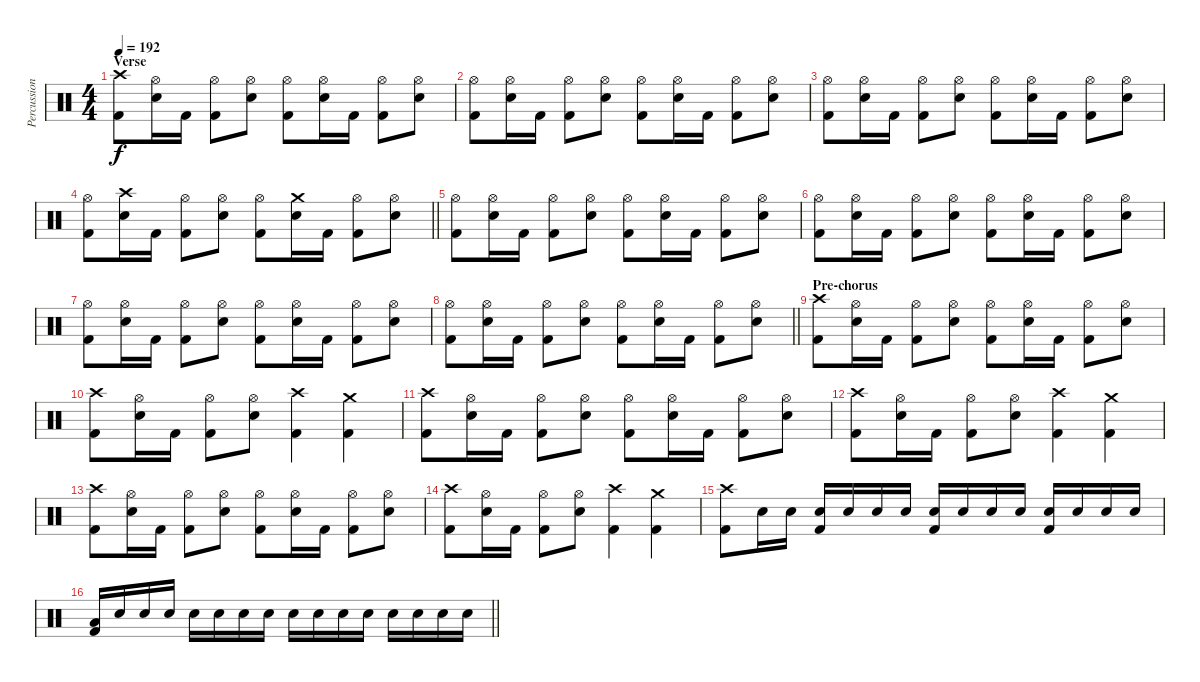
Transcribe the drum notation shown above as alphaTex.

\track ("Percussion" "Percussion") {instrument percussion}
\staff {score}
\articulation defaults
\ts (4 4)
\section ("" "Verse ")
\tempo 192
\clef neutral
\ks c
("Crash high (hit)" "Kick (hit) 2").8{dy f} ("Hi-Hat (open)" "Electric Snare (hit)").16 "Kick (hit) 2".16 ("Hi-Hat (open)" "Kick (hit) 2").8 ("Hi-Hat (open)" "Electric Snare (hit)").8 ("Hi-Hat (open)" "Kick (hit) 2").8 ("Hi-Hat (open)" "Electric Snare (hit)").16 "Kick (hit) 2".16 ("Hi-Hat (open)" "Kick (hit) 2").8 ("Hi-Hat (open)" "Electric Snare (hit)").8 |
("Hi-Hat (open)" "Kick (hit) 2").8 ("Hi-Hat (open)" "Electric Snare (hit)").16 "Kick (hit) 2".16 ("Hi-Hat (open)" "Kick (hit) 2").8 ("Hi-Hat (open)" "Electric Snare (hit)").8 ("Hi-Hat (open)" "Kick (hit) 2").8 ("Hi-Hat (open)" "Electric Snare (hit)").16 "Kick (hit) 2".16 ("Hi-Hat (open)" "Kick (hit) 2").8 ("Hi-Hat (open)" "Electric Snare (hit)").8 |
("Hi-Hat (open)" "Kick (hit) 2").8 ("Hi-Hat (open)" "Electric Snare (hit)").16 "Kick (hit) 2".16 ("Hi-Hat (open)" "Kick (hit) 2").8 ("Hi-Hat (open)" "Electric Snare (hit)").8 ("Hi-Hat (open)" "Kick (hit) 2").8 ("Hi-Hat (open)" "Electric Snare (hit)").16 "Kick (hit) 2".16 ("Hi-Hat (open)" "Kick (hit) 2").8 ("Hi-Hat (open)" "Electric Snare (hit)").8 |
\barLineRight lightlight
("Hi-Hat (open)" "Kick (hit) 2").8 ("Crash high (hit)" "Electric Snare (hit)").16 "Kick (hit) 2".16 ("Hi-Hat (open)" "Kick (hit) 2").8 ("Hi-Hat (open)" "Electric Snare (hit)").8 ("Hi-Hat (open)" "Kick (hit) 2").8 ("Crash medium (hit)" "Electric Snare (hit)").16 "Kick (hit) 2".16 ("Hi-Hat (open)" "Kick (hit) 2").8 ("Hi-Hat (open)" "Electric Snare (hit)").8 |
("Hi-Hat (open)" "Kick (hit) 2").8 ("Hi-Hat (open)" "Electric Snare (hit)").16 "Kick (hit) 2".16 ("Hi-Hat (open)" "Kick (hit) 2").8 ("Hi-Hat (open)" "Electric Snare (hit)").8 ("Hi-Hat (open)" "Kick (hit) 2").8 ("Hi-Hat (open)" "Electric Snare (hit)").16 "Kick (hit) 2".16 ("Hi-Hat (open)" "Kick (hit) 2").8 ("Hi-Hat (open)" "Electric Snare (hit)").8 |
("Hi-Hat (open)" "Kick (hit) 2").8 ("Hi-Hat (open)" "Electric Snare (hit)").16 "Kick (hit) 2".16 ("Hi-Hat (open)" "Kick (hit) 2").8 ("Hi-Hat (open)" "Electric Snare (hit)").8 ("Hi-Hat (open)" "Kick (hit) 2").8 ("Hi-Hat (open)" "Electric Snare (hit)").16 "Kick (hit) 2".16 ("Hi-Hat (open)" "Kick (hit) 2").8 ("Hi-Hat (open)" "Electric Snare (hit)").8 |
("Hi-Hat (open)" "Kick (hit) 2").8 ("Hi-Hat (open)" "Electric Snare (hit)").16 "Kick (hit) 2".16 ("Hi-Hat (open)" "Kick (hit) 2").8 ("Hi-Hat (open)" "Electric Snare (hit)").8 ("Hi-Hat (open)" "Kick (hit) 2").8 ("Hi-Hat (open)" "Electric Snare (hit)").16 "Kick (hit) 2".16 ("Hi-Hat (open)" "Kick (hit) 2").8 ("Hi-Hat (open)" "Electric Snare (hit)").8 |
\barLineRight lightlight
("Hi-Hat (open)" "Kick (hit) 2").8 ("Hi-Hat (open)" "Electric Snare (hit)").16 "Kick (hit) 2".16 ("Hi-Hat (open)" "Kick (hit) 2").8 ("Hi-Hat (open)" "Electric Snare (hit)").8 ("Hi-Hat (open)" "Kick (hit) 2").8 ("Hi-Hat (open)" "Electric Snare (hit)").16 "Kick (hit) 2".16 ("Hi-Hat (open)" "Kick (hit) 2").8 ("Hi-Hat (open)" "Electric Snare (hit)").8 |
\section ("" "Pre-chorus")
("Crash high (hit)" "Kick (hit) 2").8 ("Hi-Hat (open)" "Electric Snare (hit)").16 "Kick (hit) 2".16 ("Hi-Hat (open)" "Kick (hit) 2").8 ("Hi-Hat (open)" "Electric Snare (hit)").8 ("Hi-Hat (open)" "Kick (hit) 2").8 ("Hi-Hat (open)" "Electric Snare (hit)").16 "Kick (hit) 2".16 ("Hi-Hat (open)" "Kick (hit) 2").8 ("Hi-Hat (open)" "Electric Snare (hit)").8 |
("Crash high (hit)" "Kick (hit) 2").8 ("Hi-Hat (open)" "Electric Snare (hit)").16 "Kick (hit) 2".16 ("Hi-Hat (open)" "Kick (hit) 2").8 ("Hi-Hat (open)" "Electric Snare (hit)").8 ("Crash high (hit)" "Kick (hit) 2").4 ("Crash medium (hit)" "Kick (hit) 2").4 |
("Crash high (hit)" "Kick (hit) 2").8 ("Hi-Hat (open)" "Electric Snare (hit)").16 "Kick (hit) 2".16 ("Hi-Hat (open)" "Kick (hit) 2").8 ("Hi-Hat (open)" "Electric Snare (hit)").8 ("Hi-Hat (open)" "Kick (hit) 2").8 ("Hi-Hat (open)" "Electric Snare (hit)").16 "Kick (hit) 2".16 ("Hi-Hat (open)" "Kick (hit) 2").8 ("Hi-Hat (open)" "Electric Snare (hit)").8 |
("Crash high (hit)" "Kick (hit) 2").8 ("Hi-Hat (open)" "Electric Snare (hit)").16 "Kick (hit) 2".16 ("Hi-Hat (open)" "Kick (hit) 2").8 ("Hi-Hat (open)" "Electric Snare (hit)").8 ("Crash high (hit)" "Kick (hit) 2").4 ("Crash medium (hit)" "Kick (hit) 2").4 |
("Crash high (hit)" "Kick (hit) 2").8 ("Hi-Hat (open)" "Electric Snare (hit)").16 "Kick (hit) 2".16 ("Hi-Hat (open)" "Kick (hit) 2").8 ("Hi-Hat (open)" "Electric Snare (hit)").8 ("Hi-Hat (open)" "Kick (hit) 2").8 ("Hi-Hat (open)" "Electric Snare (hit)").16 "Kick (hit) 2".16 ("Hi-Hat (open)" "Kick (hit) 2").8 ("Hi-Hat (open)" "Electric Snare (hit)").8 |
("Crash high (hit)" "Kick (hit) 2").8 ("Hi-Hat (open)" "Electric Snare (hit)").16 "Kick (hit) 2".16 ("Hi-Hat (open)" "Kick (hit) 2").8 ("Hi-Hat (open)" "Electric Snare (hit)").8 ("Crash high (hit)" "Kick (hit) 2").4 ("Crash medium (hit)" "Kick (hit) 2").4 |
("Crash high (hit)" "Kick (hit) 2").8 "Electric Snare (hit)".16 "Electric Snare (hit)".16 ("Electric Snare (hit)" "Kick (hit) 2").16 "Electric Snare (hit)".16 "Electric Snare (hit)".16 "Electric Snare (hit)".16 ("Electric Snare (hit)" "Kick (hit) 2").16 "Electric Snare (hit)".16 "Electric Snare (hit)".16 "Electric Snare (hit)".16 ("Electric Snare (hit)" "Kick (hit) 2").16 "Electric Snare (hit)".16 "Electric Snare (hit)".16 "Electric Snare (hit)".16 |
\barLineRight lightlight
("Low Tom (hit)" "Kick (hit) 2").16 "Electric Snare (hit)".16 "Electric Snare (hit)".16 "Electric Snare (hit)".16 "Electric Snare (hit)".16 "Electric Snare (hit)".16 "Electric Snare (hit)".16 "Electric Snare (hit)".16 "Electric Snare (hit)".16 "Electric Snare (hit)".16 "Electric Snare (hit)".16 "Electric Snare (hit)".16 "Electric Snare (hit)".16 "Electric Snare (hit)".16 "Electric Snare (hit)".16 "Electric Snare (hit)".16
